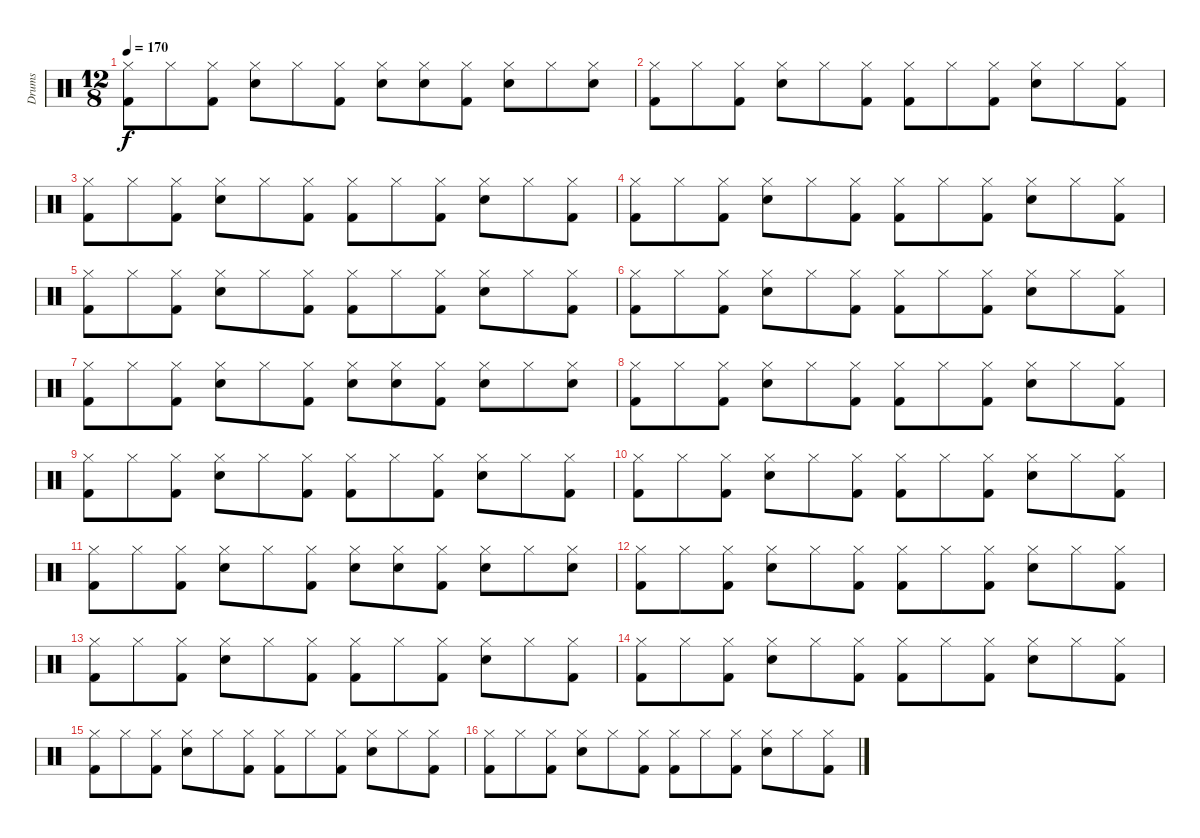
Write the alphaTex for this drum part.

\track ("Drums" "Drums") {instrument percussion}
\staff {score}
\articulation defaults
\ts (12 8)
\tempo 170
\clef neutral
\ks c
("Kick (hit) 2" "Hi-Hat (closed)").8{dy f} "Hi-Hat (closed)".8 ("Kick (hit) 2" "Hi-Hat (closed)").8 ("Snare (hit) 2" "Hi-Hat (closed)").8 "Hi-Hat (closed)".8 ("Kick (hit) 2" "Hi-Hat (closed)").8 ("Snare (hit) 2" "Hi-Hat (closed)").8 ("Snare (hit) 2" "Hi-Hat (closed)").8 ("Kick (hit) 2" "Hi-Hat (closed)").8 ("Snare (hit) 2" "Hi-Hat (closed)").8 "Hi-Hat (closed)".8 ("Snare (hit) 2" "Hi-Hat (closed)").8 |
("Kick (hit) 2" "Hi-Hat (closed)").8 "Hi-Hat (closed)".8 ("Kick (hit) 2" "Hi-Hat (closed)").8 ("Snare (hit) 2" "Hi-Hat (closed)").8 "Hi-Hat (closed)".8 ("Kick (hit) 2" "Hi-Hat (closed)").8 ("Kick (hit) 2" "Hi-Hat (closed)").8 "Hi-Hat (closed)".8 ("Kick (hit) 2" "Hi-Hat (closed)").8 ("Snare (hit) 2" "Hi-Hat (closed)").8 "Hi-Hat (closed)".8 ("Kick (hit) 2" "Hi-Hat (closed)").8 |
("Kick (hit) 2" "Hi-Hat (closed)").8 "Hi-Hat (closed)".8 ("Kick (hit) 2" "Hi-Hat (closed)").8 ("Snare (hit) 2" "Hi-Hat (closed)").8 "Hi-Hat (closed)".8 ("Kick (hit) 2" "Hi-Hat (closed)").8 ("Kick (hit) 2" "Hi-Hat (closed)").8 "Hi-Hat (closed)".8 ("Kick (hit) 2" "Hi-Hat (closed)").8 ("Snare (hit) 2" "Hi-Hat (closed)").8 "Hi-Hat (closed)".8 ("Kick (hit) 2" "Hi-Hat (closed)").8 |
("Kick (hit) 2" "Hi-Hat (closed)").8 "Hi-Hat (closed)".8 ("Kick (hit) 2" "Hi-Hat (closed)").8 ("Snare (hit) 2" "Hi-Hat (closed)").8 "Hi-Hat (closed)".8 ("Kick (hit) 2" "Hi-Hat (closed)").8 ("Kick (hit) 2" "Hi-Hat (closed)").8 "Hi-Hat (closed)".8 ("Kick (hit) 2" "Hi-Hat (closed)").8 ("Snare (hit) 2" "Hi-Hat (closed)").8 "Hi-Hat (closed)".8 ("Kick (hit) 2" "Hi-Hat (closed)").8 |
("Kick (hit) 2" "Hi-Hat (closed)").8 "Hi-Hat (closed)".8 ("Kick (hit) 2" "Hi-Hat (closed)").8 ("Snare (hit) 2" "Hi-Hat (closed)").8 "Hi-Hat (closed)".8 ("Kick (hit) 2" "Hi-Hat (closed)").8 ("Kick (hit) 2" "Hi-Hat (closed)").8 "Hi-Hat (closed)".8 ("Kick (hit) 2" "Hi-Hat (closed)").8 ("Snare (hit) 2" "Hi-Hat (closed)").8 "Hi-Hat (closed)".8 ("Kick (hit) 2" "Hi-Hat (closed)").8 |
("Kick (hit) 2" "Hi-Hat (closed)").8 "Hi-Hat (closed)".8 ("Kick (hit) 2" "Hi-Hat (closed)").8 ("Snare (hit) 2" "Hi-Hat (closed)").8 "Hi-Hat (closed)".8 ("Kick (hit) 2" "Hi-Hat (closed)").8 ("Kick (hit) 2" "Hi-Hat (closed)").8 "Hi-Hat (closed)".8 ("Kick (hit) 2" "Hi-Hat (closed)").8 ("Snare (hit) 2" "Hi-Hat (closed)").8 "Hi-Hat (closed)".8 ("Kick (hit) 2" "Hi-Hat (closed)").8 |
("Kick (hit) 2" "Hi-Hat (closed)").8 "Hi-Hat (closed)".8 ("Kick (hit) 2" "Hi-Hat (closed)").8 ("Snare (hit) 2" "Hi-Hat (closed)").8 "Hi-Hat (closed)".8 ("Kick (hit) 2" "Hi-Hat (closed)").8 ("Snare (hit) 2" "Hi-Hat (closed)").8 ("Snare (hit) 2" "Hi-Hat (closed)").8 ("Kick (hit) 2" "Hi-Hat (closed)").8 ("Snare (hit) 2" "Hi-Hat (closed)").8 "Hi-Hat (closed)".8 ("Snare (hit) 2" "Hi-Hat (closed)").8 |
("Kick (hit) 2" "Hi-Hat (closed)").8 "Hi-Hat (closed)".8 ("Kick (hit) 2" "Hi-Hat (closed)").8 ("Snare (hit) 2" "Hi-Hat (closed)").8 "Hi-Hat (closed)".8 ("Kick (hit) 2" "Hi-Hat (closed)").8 ("Kick (hit) 2" "Hi-Hat (closed)").8 "Hi-Hat (closed)".8 ("Kick (hit) 2" "Hi-Hat (closed)").8 ("Snare (hit) 2" "Hi-Hat (closed)").8 "Hi-Hat (closed)".8 ("Kick (hit) 2" "Hi-Hat (closed)").8 |
("Kick (hit) 2" "Hi-Hat (closed)").8 "Hi-Hat (closed)".8 ("Kick (hit) 2" "Hi-Hat (closed)").8 ("Snare (hit) 2" "Hi-Hat (closed)").8 "Hi-Hat (closed)".8 ("Kick (hit) 2" "Hi-Hat (closed)").8 ("Kick (hit) 2" "Hi-Hat (closed)").8 "Hi-Hat (closed)".8 ("Kick (hit) 2" "Hi-Hat (closed)").8 ("Snare (hit) 2" "Hi-Hat (closed)").8 "Hi-Hat (closed)".8 ("Kick (hit) 2" "Hi-Hat (closed)").8 |
("Kick (hit) 2" "Hi-Hat (closed)").8 "Hi-Hat (closed)".8 ("Kick (hit) 2" "Hi-Hat (closed)").8 ("Snare (hit) 2" "Hi-Hat (closed)").8 "Hi-Hat (closed)".8 ("Kick (hit) 2" "Hi-Hat (closed)").8 ("Kick (hit) 2" "Hi-Hat (closed)").8 "Hi-Hat (closed)".8 ("Kick (hit) 2" "Hi-Hat (closed)").8 ("Snare (hit) 2" "Hi-Hat (closed)").8 "Hi-Hat (closed)".8 ("Kick (hit) 2" "Hi-Hat (closed)").8 |
("Kick (hit) 2" "Hi-Hat (closed)").8 "Hi-Hat (closed)".8 ("Kick (hit) 2" "Hi-Hat (closed)").8 ("Snare (hit) 2" "Hi-Hat (closed)").8 "Hi-Hat (closed)".8 ("Kick (hit) 2" "Hi-Hat (closed)").8 ("Snare (hit) 2" "Hi-Hat (closed)").8 ("Snare (hit) 2" "Hi-Hat (closed)").8 ("Kick (hit) 2" "Hi-Hat (closed)").8 ("Snare (hit) 2" "Hi-Hat (closed)").8 "Hi-Hat (closed)".8 ("Snare (hit) 2" "Hi-Hat (closed)").8 |
("Kick (hit) 2" "Hi-Hat (closed)").8 "Hi-Hat (closed)".8 ("Kick (hit) 2" "Hi-Hat (closed)").8 ("Snare (hit) 2" "Hi-Hat (closed)").8 "Hi-Hat (closed)".8 ("Kick (hit) 2" "Hi-Hat (closed)").8 ("Kick (hit) 2" "Hi-Hat (closed)").8 "Hi-Hat (closed)".8 ("Kick (hit) 2" "Hi-Hat (closed)").8 ("Snare (hit) 2" "Hi-Hat (closed)").8 "Hi-Hat (closed)".8 ("Kick (hit) 2" "Hi-Hat (closed)").8 |
("Kick (hit) 2" "Hi-Hat (closed)").8 "Hi-Hat (closed)".8 ("Kick (hit) 2" "Hi-Hat (closed)").8 ("Snare (hit) 2" "Hi-Hat (closed)").8 "Hi-Hat (closed)".8 ("Kick (hit) 2" "Hi-Hat (closed)").8 ("Kick (hit) 2" "Hi-Hat (closed)").8 "Hi-Hat (closed)".8 ("Kick (hit) 2" "Hi-Hat (closed)").8 ("Snare (hit) 2" "Hi-Hat (closed)").8 "Hi-Hat (closed)".8 ("Kick (hit) 2" "Hi-Hat (closed)").8 |
("Kick (hit) 2" "Hi-Hat (closed)").8 "Hi-Hat (closed)".8 ("Kick (hit) 2" "Hi-Hat (closed)").8 ("Snare (hit) 2" "Hi-Hat (closed)").8 "Hi-Hat (closed)".8 ("Kick (hit) 2" "Hi-Hat (closed)").8 ("Kick (hit) 2" "Hi-Hat (closed)").8 "Hi-Hat (closed)".8 ("Kick (hit) 2" "Hi-Hat (closed)").8 ("Snare (hit) 2" "Hi-Hat (closed)").8 "Hi-Hat (closed)".8 ("Kick (hit) 2" "Hi-Hat (closed)").8 |
("Kick (hit) 2" "Hi-Hat (closed)").8 "Hi-Hat (closed)".8 ("Kick (hit) 2" "Hi-Hat (closed)").8 ("Snare (hit) 2" "Hi-Hat (closed)").8 "Hi-Hat (closed)".8 ("Kick (hit) 2" "Hi-Hat (closed)").8 ("Kick (hit) 2" "Hi-Hat (closed)").8 "Hi-Hat (closed)".8 ("Kick (hit) 2" "Hi-Hat (closed)").8 ("Snare (hit) 2" "Hi-Hat (closed)").8 "Hi-Hat (closed)".8 ("Kick (hit) 2" "Hi-Hat (closed)").8 |
("Kick (hit) 2" "Hi-Hat (closed)").8 "Hi-Hat (closed)".8 ("Kick (hit) 2" "Hi-Hat (closed)").8 ("Snare (hit) 2" "Hi-Hat (closed)").8 "Hi-Hat (closed)".8 ("Kick (hit) 2" "Hi-Hat (closed)").8 ("Kick (hit) 2" "Hi-Hat (closed)").8 "Hi-Hat (closed)".8 ("Kick (hit) 2" "Hi-Hat (closed)").8 ("Snare (hit) 2" "Hi-Hat (closed)").8 "Hi-Hat (closed)".8 ("Kick (hit) 2" "Hi-Hat (closed)").8
